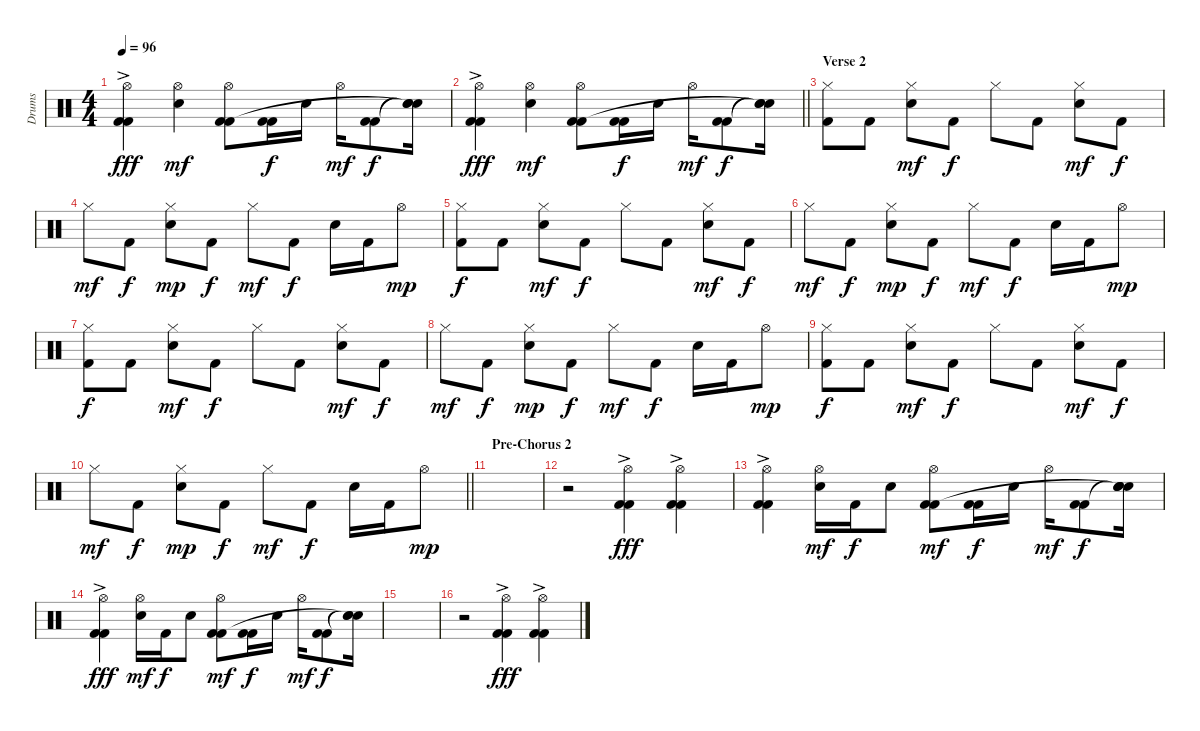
\track ("Drums" "Drums") {instrument percussion}
\staff {score}
\articulation defaults
\ts (4 4)
\tempo 96
\clef neutral
\ks c
("Hi-Hat (open)"{ac} "Kick (hit) 2" "Kick (hit) 2").4{dy fff} ("Hi-Hat (open)" "Snare (hit) 2").4{dy mf} ("Hi-Hat (open)" "Kick (hit) 2" "Kick (hit) 2").8 ("Kick (hit) 2" "Kick (hit) 2").16{dy f} "Snare (hit) 2".16 "Hi-Hat (open)".16{dy mf} ("Kick (hit) 2" "Kick (hit) 2").8{dy f} ("Snare (hit)"{t} "Snare (hit)"{t} "Snare (hit)"{t}).16 |
\barLineRight lightlight
("Hi-Hat (open)"{ac} "Kick (hit) 2" "Kick (hit) 2").4{dy fff} ("Hi-Hat (open)" "Snare (hit) 2").4{dy mf} ("Hi-Hat (open)" "Kick (hit) 2" "Kick (hit) 2").8 ("Kick (hit) 2" "Kick (hit) 2").16{dy f} "Snare (hit) 2".16 "Hi-Hat (open)".16{dy mf} ("Kick (hit) 2" "Kick (hit) 2").8{dy f} ("Snare (hit)"{t} "Snare (hit)"{t} "Snare (hit)"{t}).16 |
\section ("" "Verse 2")
("Hi-Hat (closed)" "Kick (hit) 2").8 "Kick (hit) 2".8 ("Hi-Hat (closed)" "Electric Snare (hit)").8{dy mf} "Kick (hit) 2".8{dy f} "Hi-Hat (closed)".8 "Kick (hit) 2".8 ("Hi-Hat (closed)" "Electric Snare (hit)").8{dy mf} "Kick (hit) 2".8{dy f} |
"Hi-Hat (closed)".8{dy mf} "Kick (hit) 2".8{dy f} ("Hi-Hat (closed)" "Electric Snare (hit)").8{dy mp} "Kick (hit) 2".8{dy f} "Hi-Hat (closed)".8{dy mf} "Kick (hit) 2".8{dy f} "Electric Snare (hit)".16 "Kick (hit) 2".16 "Hi-Hat (open)".8{dy mp} |
("Hi-Hat (closed)" "Kick (hit) 2").8{dy f} "Kick (hit) 2".8 ("Hi-Hat (closed)" "Electric Snare (hit)").8{dy mf} "Kick (hit) 2".8{dy f} "Hi-Hat (closed)".8 "Kick (hit) 2".8 ("Hi-Hat (closed)" "Electric Snare (hit)").8{dy mf} "Kick (hit) 2".8{dy f} |
"Hi-Hat (closed)".8{dy mf} "Kick (hit) 2".8{dy f} ("Hi-Hat (closed)" "Electric Snare (hit)").8{dy mp} "Kick (hit) 2".8{dy f} "Hi-Hat (closed)".8{dy mf} "Kick (hit) 2".8{dy f} "Electric Snare (hit)".16 "Kick (hit) 2".16 "Hi-Hat (open)".8{dy mp} |
("Hi-Hat (closed)" "Kick (hit) 2").8{dy f} "Kick (hit) 2".8 ("Hi-Hat (closed)" "Electric Snare (hit)").8{dy mf} "Kick (hit) 2".8{dy f} "Hi-Hat (closed)".8 "Kick (hit) 2".8 ("Hi-Hat (closed)" "Electric Snare (hit)").8{dy mf} "Kick (hit) 2".8{dy f} |
"Hi-Hat (closed)".8{dy mf} "Kick (hit) 2".8{dy f} ("Hi-Hat (closed)" "Electric Snare (hit)").8{dy mp} "Kick (hit) 2".8{dy f} "Hi-Hat (closed)".8{dy mf} "Kick (hit) 2".8{dy f} "Electric Snare (hit)".16 "Kick (hit) 2".16 "Hi-Hat (open)".8{dy mp} |
("Hi-Hat (closed)" "Kick (hit) 2").8{dy f} "Kick (hit) 2".8 ("Hi-Hat (closed)" "Electric Snare (hit)").8{dy mf} "Kick (hit) 2".8{dy f} "Hi-Hat (closed)".8 "Kick (hit) 2".8 ("Hi-Hat (closed)" "Electric Snare (hit)").8{dy mf} "Kick (hit) 2".8{dy f} |
\barLineRight lightlight "Hi-Hat (closed)".8{dy mf} "Kick (hit) 2".8{dy f}
("Hi-Hat (closed)" "Electric Snare (hit)").8{dy mp} "Kick (hit) 2".8{dy f} "Hi-Hat (closed)".8{dy mf} "Kick (hit) 2".8{dy f} "Electric Snare (hit)".16 "Kick (hit) 2".16 "Hi-Hat (open)".8{dy mp} |
\section ("" "Pre-Chorus 2")
|
r.2{volume 16} ("Hi-Hat (open)"{ac} "Kick (hit) 2" "Kick (hit) 2").4{dy fff} ("Hi-Hat (open)"{ac} "Kick (hit) 2" "Kick (hit) 2").4 |
("Hi-Hat (open)"{ac} "Kick (hit) 2" "Kick (hit) 2").4 ("Hi-Hat (open)" "Snare (hit) 2").16{dy mf} "Kick (hit) 2".16{dy f} "Snare (hit) 2".8 ("Hi-Hat (open)" "Kick (hit) 2" "Kick (hit) 2").8{dy mf} ("Kick (hit) 2" "Kick (hit) 2").16{dy f} "Snare (hit) 2".16 "Hi-Hat (open)".16{dy mf} ("Kick (hit) 2" "Kick (hit) 2").8{dy f} ("Snare (hit)"{t} "Snare (hit) 2" "Snare (hit)"{t} "Snare (hit)").16 |
("Hi-Hat (open)"{ac} "Kick (hit) 2" "Kick (hit) 2").4{dy fff} ("Hi-Hat (open)" "Snare (hit) 2").16{dy mf} "Kick (hit) 2".16{dy f} "Snare (hit) 2".8 ("Hi-Hat (open)" "Kick (hit) 2" "Kick (hit) 2").8{dy mf} ("Kick (hit) 2" "Kick (hit) 2").16{dy f} "Snare (hit) 2".16 "Hi-Hat (open)".16{dy mf} ("Kick (hit) 2" "Kick (hit) 2").8{dy f} ("Snare (hit)"{t} "Snare (hit)"{t} "Snare (hit)"{t}).16 |
|
r.2{volume 16} ("Hi-Hat (open)"{ac} "Kick (hit) 2" "Kick (hit) 2").4{dy fff} ("Hi-Hat (open)"{ac} "Kick (hit) 2" "Kick (hit) 2").4
